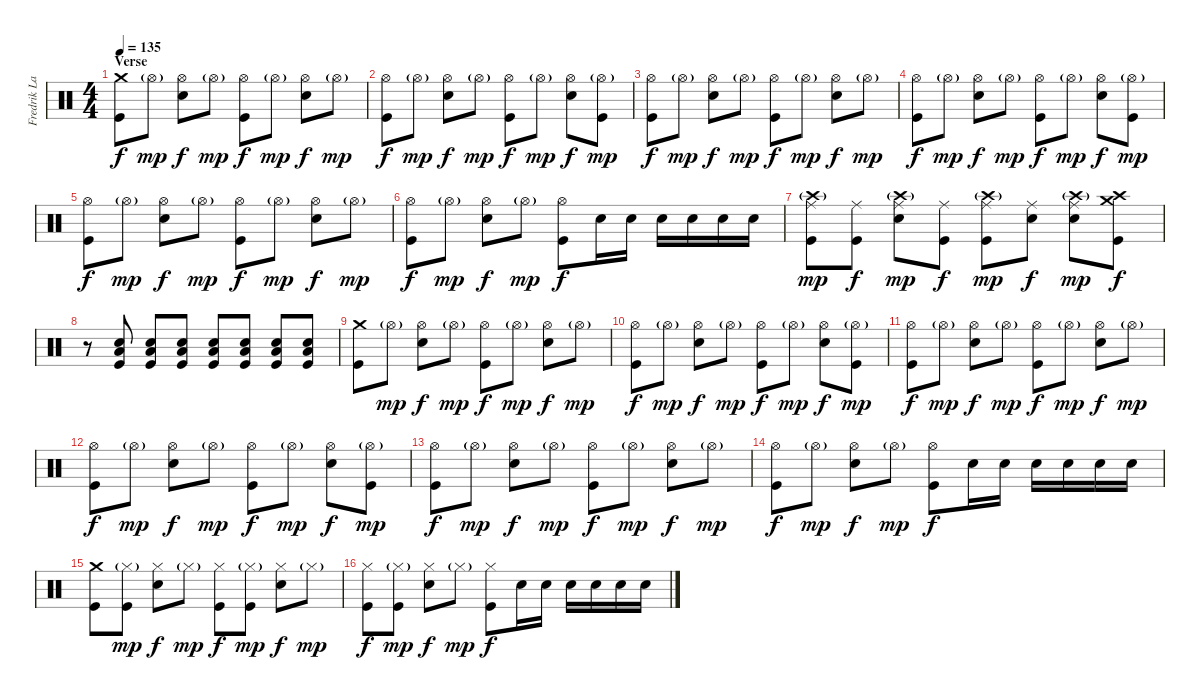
\track ("Fredrik Larzon" "Fredrik La") {instrument percussion}
\staff {score}
\articulation defaults
\ts (4 4)
\section ("" "Verse")
\tempo 135
\clef neutral
\ks c
("Crash medium (hit)" "Kick (hit)").8{dy f} "Hi-Hat (open)"{g}.8{dy mp} ("Hi-Hat (open)" "Electric Snare (hit)").8{dy f} "Hi-Hat (open)"{g}.8{dy mp} ("Hi-Hat (open)" "Kick (hit)").8{dy f} "Hi-Hat (open)"{g}.8{dy mp} ("Hi-Hat (open)" "Electric Snare (hit)").8{dy f} "Hi-Hat (open)"{g}.8{dy mp} |
("Hi-Hat (open)" "Kick (hit)").8{dy f} "Hi-Hat (open)"{g}.8{dy mp} ("Hi-Hat (open)" "Electric Snare (hit)").8{dy f} "Hi-Hat (open)"{g}.8{dy mp} ("Hi-Hat (open)" "Kick (hit)").8{dy f} "Hi-Hat (open)"{g}.8{dy mp} ("Hi-Hat (open)" "Electric Snare (hit)").8{dy f} ("Hi-Hat (open)"{g} "Kick (hit)").8{dy mp} |
("Hi-Hat (open)" "Kick (hit)").8{dy f} "Hi-Hat (open)"{g}.8{dy mp} ("Hi-Hat (open)" "Electric Snare (hit)").8{dy f} "Hi-Hat (open)"{g}.8{dy mp} ("Hi-Hat (open)" "Kick (hit)").8{dy f} "Hi-Hat (open)"{g}.8{dy mp} ("Hi-Hat (open)" "Electric Snare (hit)").8{dy f} "Hi-Hat (open)"{g}.8{dy mp} |
("Hi-Hat (open)" "Kick (hit)").8{dy f} "Hi-Hat (open)"{g}.8{dy mp} ("Hi-Hat (open)" "Electric Snare (hit)").8{dy f} "Hi-Hat (open)"{g}.8{dy mp} ("Hi-Hat (open)" "Kick (hit)").8{dy f} "Hi-Hat (open)"{g}.8{dy mp} ("Hi-Hat (open)" "Electric Snare (hit)").8{dy f} ("Hi-Hat (open)"{g} "Kick (hit)").8{dy mp} |
("Hi-Hat (open)" "Kick (hit)").8{dy f} "Hi-Hat (open)"{g}.8{dy mp} ("Hi-Hat (open)" "Electric Snare (hit)").8{dy f} "Hi-Hat (open)"{g}.8{dy mp} ("Hi-Hat (open)" "Kick (hit)").8{dy f} "Hi-Hat (open)"{g}.8{dy mp} ("Hi-Hat (open)" "Electric Snare (hit)").8{dy f} "Hi-Hat (open)"{g}.8{dy mp} |
("Hi-Hat (open)" "Kick (hit)").8{dy f} "Hi-Hat (open)"{g}.8{dy mp} ("Hi-Hat (open)" "Electric Snare (hit)").8{dy f} "Hi-Hat (open)"{g}.8{dy mp} ("Hi-Hat (open)" "Kick (hit)").8{dy f} "Electric Snare (hit)".16 "Electric Snare (hit)".16 "Electric Snare (hit)".16 "Electric Snare (hit)".16 "Electric Snare (hit)".16 "Electric Snare (hit)".16 |
("Ride (middle)" "Crash high (hit)"{g} "Kick (hit)").8{dy mp} ("Ride (middle)" "Kick (hit)").8{dy f} ("Ride (middle)" "Crash high (hit)"{g} "Electric Snare (hit)").8{dy mp} ("Ride (middle)" "Kick (hit)").8{dy f} ("Ride (middle)" "Crash high (hit)"{g} "Kick (hit)").8{dy mp} ("Ride (middle)" "Electric Snare (hit)").8{dy f} ("Ride (middle)" "Crash high (hit)"{g} "Electric Snare (hit)").8{dy mp} ("Crash medium (hit)" "Crash high (hit)" "Kick (hit)").8{dy f} |
r.8 ("Electric Snare (hit)" "Low Floor Tom (hit)" "Kick (hit)").8 ("Electric Snare (hit)" "Low Floor Tom (hit)" "Kick (hit)").8 ("Electric Snare (hit)" "Low Floor Tom (hit)" "Kick (hit)").8 ("Electric Snare (hit)" "Low Floor Tom (hit)" "Kick (hit)").8 ("Electric Snare (hit)" "Low Floor Tom (hit)" "Kick (hit)").8 ("Electric Snare (hit)" "Low Floor Tom (hit)" "Kick (hit)").8 ("Electric Snare (hit)" "Low Floor Tom (hit)" "Kick (hit)").8 |
("Crash medium (hit)" "Kick (hit)").8 "Hi-Hat (open)"{g}.8{dy mp} ("Hi-Hat (open)" "Electric Snare (hit)").8{dy f} "Hi-Hat (open)"{g}.8{dy mp} ("Hi-Hat (open)" "Kick (hit)").8{dy f} "Hi-Hat (open)"{g}.8{dy mp} ("Hi-Hat (open)" "Electric Snare (hit)").8{dy f} "Hi-Hat (open)"{g}.8{dy mp} |
("Hi-Hat (open)" "Kick (hit)").8{dy f} "Hi-Hat (open)"{g}.8{dy mp} ("Hi-Hat (open)" "Electric Snare (hit)").8{dy f} "Hi-Hat (open)"{g}.8{dy mp} ("Hi-Hat (open)" "Kick (hit)").8{dy f} "Hi-Hat (open)"{g}.8{dy mp} ("Hi-Hat (open)" "Electric Snare (hit)").8{dy f} ("Hi-Hat (open)"{g} "Kick (hit)").8{dy mp} |
("Hi-Hat (open)" "Kick (hit)").8{dy f} "Hi-Hat (open)"{g}.8{dy mp} ("Hi-Hat (open)" "Electric Snare (hit)").8{dy f} "Hi-Hat (open)"{g}.8{dy mp} ("Hi-Hat (open)" "Kick (hit)").8{dy f} "Hi-Hat (open)"{g}.8{dy mp} ("Hi-Hat (open)" "Electric Snare (hit)").8{dy f} "Hi-Hat (open)"{g}.8{dy mp} |
("Hi-Hat (open)" "Kick (hit)").8{dy f} "Hi-Hat (open)"{g}.8{dy mp} ("Hi-Hat (open)" "Electric Snare (hit)").8{dy f} "Hi-Hat (open)"{g}.8{dy mp} ("Hi-Hat (open)" "Kick (hit)").8{dy f} "Hi-Hat (open)"{g}.8{dy mp} ("Hi-Hat (open)" "Electric Snare (hit)").8{dy f} ("Hi-Hat (open)"{g} "Kick (hit)").8{dy mp} |
("Hi-Hat (open)" "Kick (hit)").8{dy f} "Hi-Hat (open)"{g}.8{dy mp} ("Hi-Hat (open)" "Electric Snare (hit)").8{dy f} "Hi-Hat (open)"{g}.8{dy mp} ("Hi-Hat (open)" "Kick (hit)").8{dy f} "Hi-Hat (open)"{g}.8{dy mp} ("Hi-Hat (open)" "Electric Snare (hit)").8{dy f} "Hi-Hat (open)"{g}.8{dy mp} |
("Hi-Hat (open)" "Kick (hit)").8{dy f} "Hi-Hat (open)"{g}.8{dy mp} ("Hi-Hat (open)" "Electric Snare (hit)").8{dy f} "Hi-Hat (open)"{g}.8{dy mp} ("Hi-Hat (open)" "Kick (hit)").8{dy f} "Electric Snare (hit)".16 "Electric Snare (hit)".16 "Electric Snare (hit)".16 "Electric Snare (hit)".16 "Electric Snare (hit)".16 "Electric Snare (hit)".16 |
("Crash medium (hit)" "Kick (hit)").8 ("Hi-Hat (closed)"{g} "Kick (hit)").8{dy mp} ("Hi-Hat (closed)" "Electric Snare (hit)").8{dy f} "Hi-Hat (closed)"{g}.8{dy mp} ("Hi-Hat (closed)" "Kick (hit)").8{dy f} ("Hi-Hat (closed)"{g} "Kick (hit)").8{dy mp} ("Hi-Hat (closed)" "Electric Snare (hit)").8{dy f} "Hi-Hat (closed)"{g}.8{dy mp} |
("Hi-Hat (closed)" "Kick (hit)").8{dy f} ("Hi-Hat (closed)"{g} "Kick (hit)").8{dy mp} ("Hi-Hat (closed)" "Electric Snare (hit)").8{dy f} "Hi-Hat (closed)"{g}.8{dy mp} ("Hi-Hat (closed)" "Kick (hit)").8{dy f} "Electric Snare (hit)".16 "Electric Snare (hit)".16 "Electric Snare (hit)".16 "Electric Snare (hit)".16 "Electric Snare (hit)".16 "Electric Snare (hit)".16
